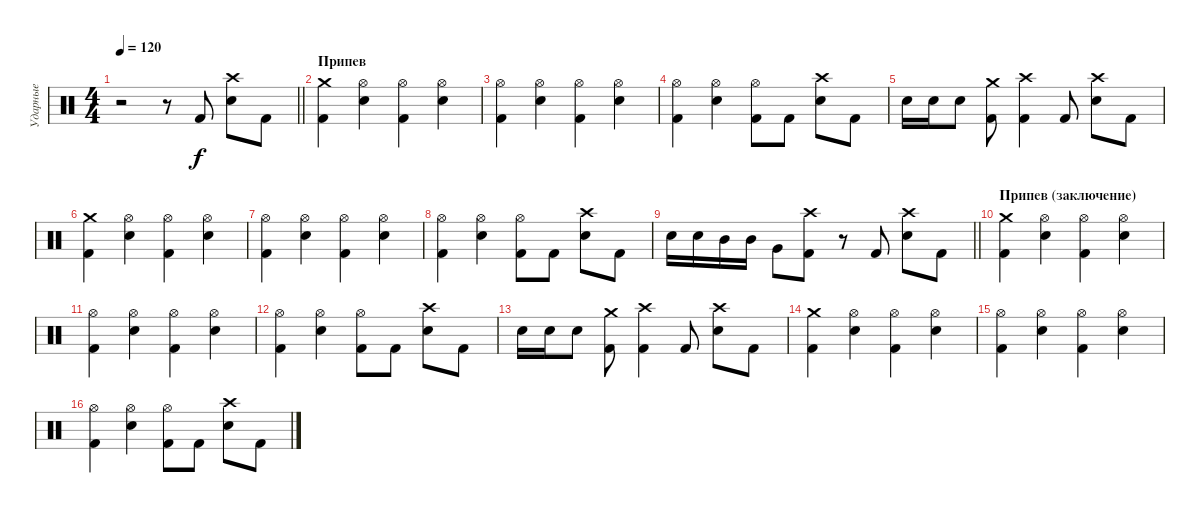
\track ("Ударные" "Ударные") {instrument percussion}
\staff {score}
\articulation defaults
\ts (4 4)
\tempo 120
\clef neutral
\barLineRight lightlight
\ks c
r.2{dy ff} r.8 "Kick (hit) 2".8{dy f} ("Snare (hit) 2" "Crash high (hit)").8 "Kick (hit) 2".8 |
\section ("" "Припев")
("Kick (hit) 2" "Crash medium (hit)").4 ("Snare (hit) 2" "Hi-Hat (open)").4 ("Kick (hit) 2" "Hi-Hat (open)").4 ("Snare (hit) 2" "Hi-Hat (open)").4 |
("Kick (hit) 2" "Hi-Hat (open)").4 ("Snare (hit) 2" "Hi-Hat (open)").4 ("Kick (hit) 2" "Hi-Hat (open)").4 ("Snare (hit) 2" "Hi-Hat (open)").4 |
("Kick (hit) 2" "Hi-Hat (open)").4 ("Snare (hit) 2" "Hi-Hat (open)").4 ("Kick (hit) 2" "Hi-Hat (open)").8 "Kick (hit) 2".8 ("Snare (hit) 2" "Crash high (hit)").8 "Kick (hit) 2".8 |
"Snare (hit) 2".16 "Snare (hit) 2".16 "Snare (hit) 2".8 ("Kick (hit) 2" "Crash medium (hit)").8 ("Kick (hit) 2" "Crash high (hit)").4 "Kick (hit) 2".8 ("Snare (hit) 2" "Crash high (hit)").8 "Kick (hit) 2".8 |
("Kick (hit) 2" "Crash medium (hit)").4 ("Snare (hit) 2" "Hi-Hat (open)").4 ("Kick (hit) 2" "Hi-Hat (open)").4 ("Snare (hit) 2" "Hi-Hat (open)").4 |
("Kick (hit) 2" "Hi-Hat (open)").4 ("Snare (hit) 2" "Hi-Hat (open)").4 ("Kick (hit) 2" "Hi-Hat (open)").4 ("Snare (hit) 2" "Hi-Hat (open)").4 |
("Kick (hit) 2" "Hi-Hat (open)").4 ("Snare (hit) 2" "Hi-Hat (open)").4 ("Kick (hit) 2" "Hi-Hat (open)").8 "Kick (hit) 2".8 ("Snare (hit) 2" "Crash high (hit)").8 "Kick (hit) 2".8 |
\barLineRight lightlight "Snare (hit) 2".16 "Snare (hit) 2".16 "Mid Tom (hit)".16 "Mid Tom (hit)".16 "Very Low Tom (hit)".8
("Kick (hit) 2" "Crash high (hit)").8 r.8 "Kick (hit) 2".8 ("Snare (hit) 2" "Crash high (hit)").8 "Kick (hit) 2".8 |
\section ("" "Припев (заключение)")
("Kick (hit) 2" "Crash medium (hit)").4 ("Snare (hit) 2" "Hi-Hat (open)").4 ("Kick (hit) 2" "Hi-Hat (open)").4 ("Snare (hit) 2" "Hi-Hat (open)").4 |
("Kick (hit) 2" "Hi-Hat (open)").4 ("Snare (hit) 2" "Hi-Hat (open)").4 ("Kick (hit) 2" "Hi-Hat (open)").4 ("Snare (hit) 2" "Hi-Hat (open)").4 |
("Kick (hit) 2" "Hi-Hat (open)").4 ("Snare (hit) 2" "Hi-Hat (open)").4 ("Kick (hit) 2" "Hi-Hat (open)").8 "Kick (hit) 2".8 ("Snare (hit) 2" "Crash high (hit)").8 "Kick (hit) 2".8 |
"Snare (hit) 2".16 "Snare (hit) 2".16 "Snare (hit) 2".8 ("Kick (hit) 2" "Crash medium (hit)").8 ("Kick (hit) 2" "Crash high (hit)").4 "Kick (hit) 2".8 ("Snare (hit) 2" "Crash high (hit)").8 "Kick (hit) 2".8 |
("Kick (hit) 2" "Crash medium (hit)").4 ("Snare (hit) 2" "Hi-Hat (open)").4 ("Kick (hit) 2" "Hi-Hat (open)").4 ("Snare (hit) 2" "Hi-Hat (open)").4 |
("Kick (hit) 2" "Hi-Hat (open)").4 ("Snare (hit) 2" "Hi-Hat (open)").4 ("Kick (hit) 2" "Hi-Hat (open)").4 ("Snare (hit) 2" "Hi-Hat (open)").4 |
("Kick (hit) 2" "Hi-Hat (open)").4 ("Snare (hit) 2" "Hi-Hat (open)").4 ("Kick (hit) 2" "Hi-Hat (open)").8 "Kick (hit) 2".8 ("Snare (hit) 2" "Crash high (hit)").8 "Kick (hit) 2".8
